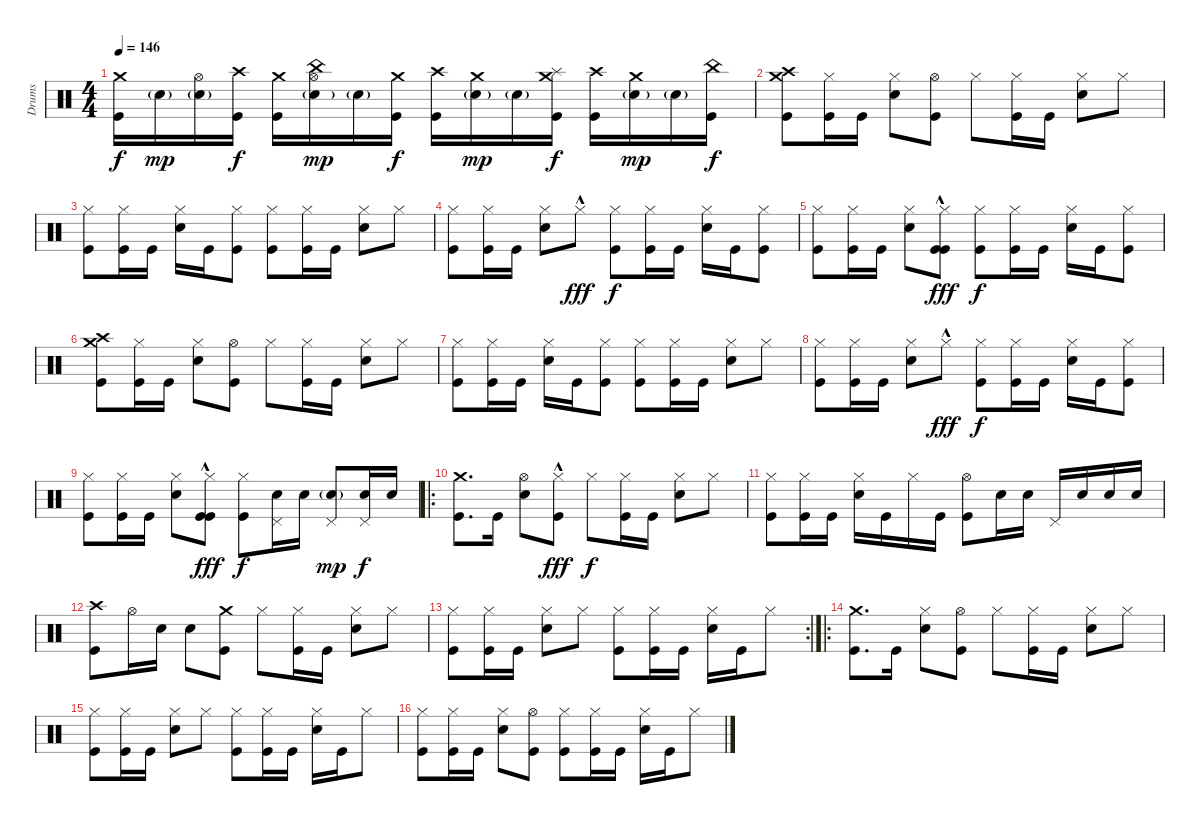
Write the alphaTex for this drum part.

\track ("Drums" "Drums") {instrument percussion}
\staff {score}
\articulation defaults
\ts (4 4)
\tempo 146
\clef neutral
\ks c
("Crash medium (hit)" "Kick (hit)").16{dy f} "Electric Snare (hit)"{g}.16{dy mp} ("Hi-Hat (open)" "Electric Snare (hit)"{g}).16 ("Crash high (hit)" "Kick (hit)").16{dy f} ("Crash medium (hit)" "Kick (hit)").16 ("China (hit)" "Hi-Hat (open)" "Electric Snare (hit)"{g}).16{dy mp} "Electric Snare (hit)"{g}.16 ("Crash medium (hit)" "Kick (hit)").16{dy f} ("Crash high (hit)" "Kick (hit)").16 ("Crash medium (hit)" "Electric Snare (hit)"{g}).16{dy mp} "Electric Snare (hit)"{g}.16 ("Crash medium (hit)" "Splash (hit)" "Kick (hit)").16{dy f} ("Crash high (hit)" "Kick (hit)").16 ("Crash medium (hit)" "Electric Snare (hit)"{g}).16{dy mp} "Electric Snare (hit)"{g}.16 ("China (hit)" "Kick (hit)").16{dy f} |
("Crash medium (hit)" "Crash high (hit)" "Kick (hit)").8 ("Hi-Hat (closed)" "Kick (hit)").16 "Kick (hit)".16 ("Hi-Hat (closed)" "Electric Snare (hit)").8 ("Hi-Hat (open)" "Kick (hit)").8 "Hi-Hat (closed)".8 ("Hi-Hat (closed)" "Kick (hit)").16 "Kick (hit)".16 ("Hi-Hat (closed)" "Electric Snare (hit)").8 "Hi-Hat (closed)".8 |
("Hi-Hat (closed)" "Kick (hit)").8 ("Hi-Hat (closed)" "Kick (hit)").16 "Kick (hit)".16 ("Hi-Hat (closed)" "Electric Snare (hit)").16 "Kick (hit)".16 ("Hi-Hat (closed)" "Kick (hit)").8 ("Hi-Hat (closed)" "Kick (hit)").8 ("Hi-Hat (closed)" "Kick (hit)").16 "Kick (hit)".16 ("Hi-Hat (closed)" "Electric Snare (hit)").8 "Hi-Hat (closed)".8 |
("Hi-Hat (closed)" "Kick (hit)").8 ("Hi-Hat (closed)" "Kick (hit)").16 "Kick (hit)".16 ("Hi-Hat (closed)" "Electric Snare (hit)").8 "Hi-Hat (closed)"{hac}.8{dy fff} ("Hi-Hat (closed)" "Kick (hit)").8{dy f} ("Hi-Hat (closed)" "Kick (hit)").16 "Kick (hit)".16 ("Hi-Hat (closed)" "Electric Snare (hit)").16 "Kick (hit)".16 ("Hi-Hat (closed)" "Kick (hit)").8 |
("Hi-Hat (closed)" "Kick (hit)").8 ("Hi-Hat (closed)" "Kick (hit)").16 "Kick (hit)".16 ("Hi-Hat (closed)" "Electric Snare (hit)").8 ("Hi-Hat (closed)"{hac} "Kick (hit)"{hac} "Kick (hit)"{hac}).8{dy fff} ("Hi-Hat (closed)" "Kick (hit)").8{dy f} ("Hi-Hat (closed)" "Kick (hit)").16 "Kick (hit)".16 ("Hi-Hat (closed)" "Electric Snare (hit)").16 "Kick (hit)".16 ("Hi-Hat (closed)" "Kick (hit)").8 |
("Crash medium (hit)" "Crash high (hit)" "Kick (hit)").8 ("Hi-Hat (closed)" "Kick (hit)").16 "Kick (hit)".16 ("Hi-Hat (closed)" "Electric Snare (hit)").8 ("Hi-Hat (open)" "Kick (hit)").8 "Hi-Hat (closed)".8 ("Hi-Hat (closed)" "Kick (hit)").16 "Kick (hit)".16 ("Hi-Hat (closed)" "Electric Snare (hit)").8 "Hi-Hat (closed)".8 |
("Hi-Hat (closed)" "Kick (hit)").8 ("Hi-Hat (closed)" "Kick (hit)").16 "Kick (hit)".16 ("Hi-Hat (closed)" "Electric Snare (hit)").16 "Kick (hit)".16 ("Hi-Hat (closed)" "Kick (hit)").8 ("Hi-Hat (closed)" "Kick (hit)").8 ("Hi-Hat (closed)" "Kick (hit)").16 "Kick (hit)".16 ("Hi-Hat (closed)" "Electric Snare (hit)").8 "Hi-Hat (closed)".8 |
("Hi-Hat (closed)" "Kick (hit)").8 ("Hi-Hat (closed)" "Kick (hit)").16 "Kick (hit)".16 ("Hi-Hat (closed)" "Electric Snare (hit)").8 "Hi-Hat (closed)"{hac}.8{dy fff} ("Hi-Hat (closed)" "Kick (hit)").8{dy f} ("Hi-Hat (closed)" "Kick (hit)").16 "Kick (hit)".16 ("Hi-Hat (closed)" "Electric Snare (hit)").16 "Kick (hit)".16 ("Hi-Hat (closed)" "Kick (hit)").8 |
("Hi-Hat (closed)" "Kick (hit)").8 ("Hi-Hat (closed)" "Kick (hit)").16 "Kick (hit)".16 ("Hi-Hat (closed)" "Electric Snare (hit)").8 ("Hi-Hat (closed)"{hac} "Kick (hit)"{hac} "Kick (hit)"{hac}).8{dy fff} ("Hi-Hat (closed)" "Kick (hit)").8{dy f} ("Pedal Hi-Hat (hit)" "Electric Snare (hit)").16 "Electric Snare (hit)".16 ("Pedal Hi-Hat (hit)" "Electric Snare (hit)"{g}).8{dy mp} ("Pedal Hi-Hat (hit)" "Electric Snare (hit)").16{dy f} "Electric Snare (hit)".16 |
\ro
("Crash medium (hit)" "Kick (hit)").8{d} "Kick (hit)".16 ("Hi-Hat (open)" "Electric Snare (hit)").8 ("Hi-Hat (closed)"{hac} "Kick (hit)"{hac}).8{dy fff} "Hi-Hat (closed)".8{dy f} ("Hi-Hat (closed)" "Kick (hit)").16 "Kick (hit)".16 ("Hi-Hat (closed)" "Electric Snare (hit)").8 "Hi-Hat (closed)".8 |
("Hi-Hat (closed)" "Kick (hit)").8 ("Hi-Hat (closed)" "Kick (hit)").16 "Kick (hit)".16 ("Hi-Hat (closed)" "Electric Snare (hit)").16 "Kick (hit)".16 "Hi-Hat (closed)".16 "Kick (hit)".16 ("Hi-Hat (open)" "Kick (hit)").8 "Electric Snare (hit)".16 "Electric Snare (hit)".16 "Pedal Hi-Hat (hit)".16 "Electric Snare (hit)".16 "Electric Snare (hit)".16 "Electric Snare (hit)".16 |
("Crash high (hit)" "Kick (hit)").8 "Hi-Hat (open)".16 "Electric Snare (hit)".16 "Electric Snare (hit)".8 ("Crash medium (hit)" "Kick (hit)").8 "Hi-Hat (closed)".8 ("Hi-Hat (closed)" "Kick (hit)").16 "Kick (hit)".16 ("Hi-Hat (closed)" "Electric Snare (hit)").8 "Hi-Hat (closed)".8 |
\rc 2
("Hi-Hat (closed)" "Kick (hit)").8 ("Hi-Hat (closed)" "Kick (hit)").16 "Kick (hit)".16 ("Hi-Hat (closed)" "Electric Snare (hit)").8 "Hi-Hat (closed)".8 ("Hi-Hat (closed)" "Kick (hit)").8 ("Hi-Hat (closed)" "Kick (hit)").16 "Kick (hit)".16 ("Hi-Hat (closed)" "Electric Snare (hit)").16 "Kick (hit)".16 "Hi-Hat (closed)".8 |
\ro
("Crash medium (hit)" "Kick (hit)").8{d} "Kick (hit)".16 ("Hi-Hat (closed)" "Electric Snare (hit)").8 ("Hi-Hat (open)" "Kick (hit)").8 "Hi-Hat (closed)".8 ("Hi-Hat (closed)" "Kick (hit)").16 "Kick (hit)".16 ("Hi-Hat (closed)" "Electric Snare (hit)").8 "Hi-Hat (closed)".8 |
("Hi-Hat (closed)" "Kick (hit)").8 ("Hi-Hat (closed)" "Kick (hit)").16 "Kick (hit)".16 ("Hi-Hat (closed)" "Electric Snare (hit)").8 "Hi-Hat (closed)".8 ("Hi-Hat (closed)" "Kick (hit)").8 ("Hi-Hat (closed)" "Kick (hit)").16 "Kick (hit)".16 ("Hi-Hat (closed)" "Electric Snare (hit)").16 "Kick (hit)".16 "Hi-Hat (closed)".8 |
("Hi-Hat (closed)" "Kick (hit)").8 ("Hi-Hat (closed)" "Kick (hit)").16 "Kick (hit)".16 ("Hi-Hat (closed)" "Electric Snare (hit)").8 ("Hi-Hat (open)" "Kick (hit)").8 ("Hi-Hat (closed)" "Kick (hit)").8 ("Hi-Hat (closed)" "Kick (hit)").16 "Kick (hit)".16 ("Hi-Hat (closed)" "Electric Snare (hit)").16 "Kick (hit)".16 "Hi-Hat (closed)".8
